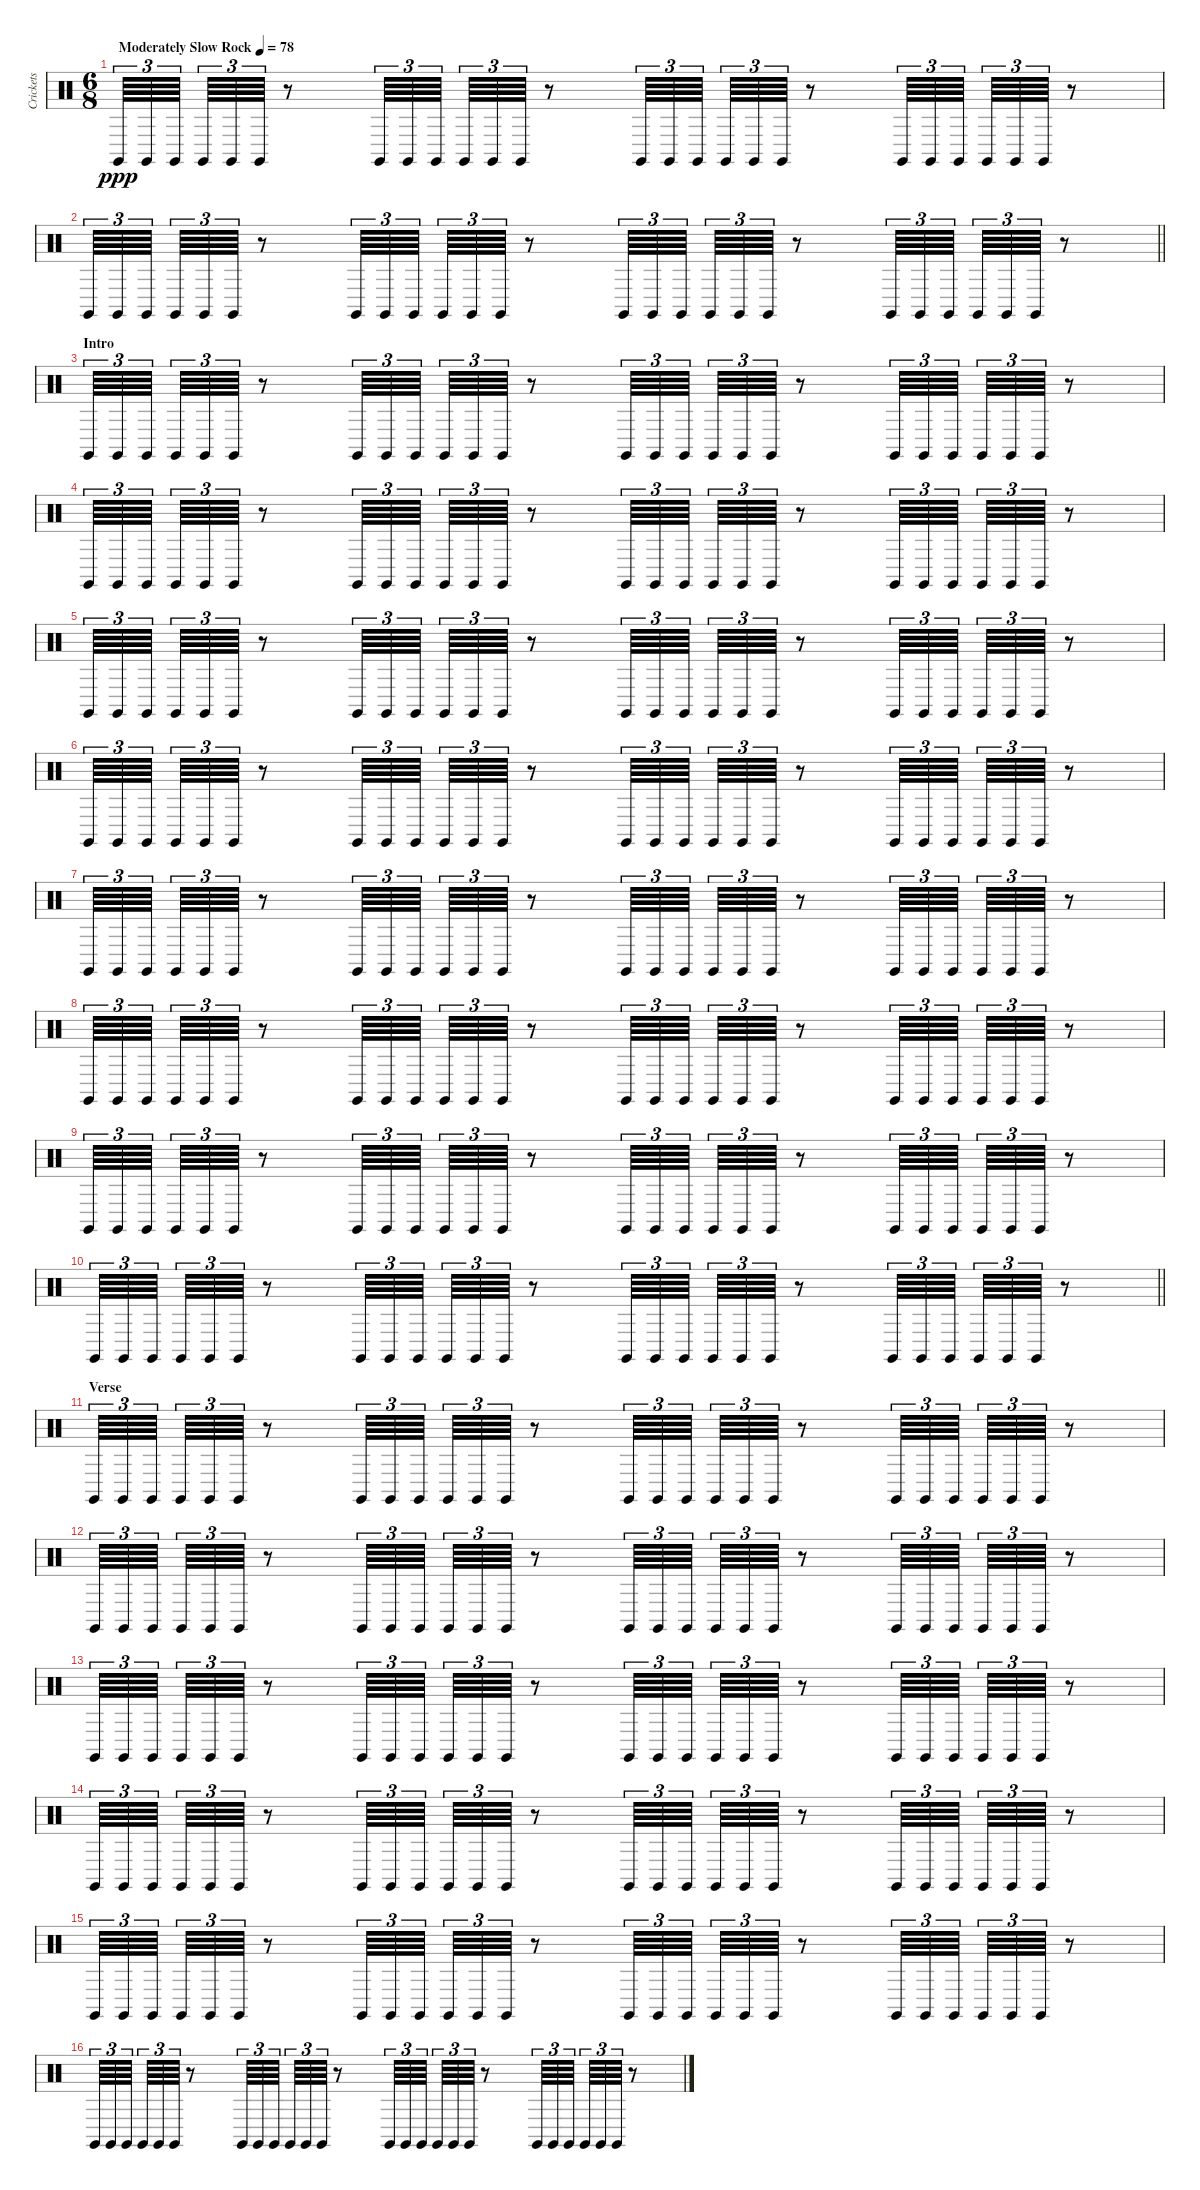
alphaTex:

\track ("Crickets" "Crickets") {instrument percussion}
\staff {score}
\articulation defaults
\ts (6 8)
\tempo (78 "Moderately Slow Rock")
\clef neutral
\ks c "Claves (hit)".64{tu (3 2) dy ppp} "Claves (hit)".64{tu (3 2)} "Claves (hit)".64{tu (3 2) beam splitsecondary} "Claves (hit)".64{tu (3 2)} "Claves (hit)".64{tu (3 2)} "Claves (hit)".64{tu (3 2)}
r.8 "Claves (hit)".64{tu (3 2)} "Claves (hit)".64{tu (3 2)} "Claves (hit)".64{tu (3 2) beam splitsecondary} "Claves (hit)".64{tu (3 2)} "Claves (hit)".64{tu (3 2)} "Claves (hit)".64{tu (3 2)} r.8 "Claves (hit)".64{tu (3 2)} "Claves (hit)".64{tu (3 2)} "Claves (hit)".64{tu (3 2) beam splitsecondary} "Claves (hit)".64{tu (3 2)} "Claves (hit)".64{tu (3 2)} "Claves (hit)".64{tu (3 2)} r.8 "Claves (hit)".64{tu (3 2)} "Claves (hit)".64{tu (3 2)} "Claves (hit)".64{tu (3 2) beam splitsecondary} "Claves (hit)".64{tu (3 2)} "Claves (hit)".64{tu (3 2)} "Claves (hit)".64{tu (3 2)} r.8 |
\barLineRight lightlight "Claves (hit)".64{tu (3 2)} "Claves (hit)".64{tu (3 2)} "Claves (hit)".64{tu (3 2) beam splitsecondary} "Claves (hit)".64{tu (3 2)} "Claves (hit)".64{tu (3 2)} "Claves (hit)".64{tu (3 2)}
r.8 "Claves (hit)".64{tu (3 2)} "Claves (hit)".64{tu (3 2)} "Claves (hit)".64{tu (3 2) beam splitsecondary} "Claves (hit)".64{tu (3 2)} "Claves (hit)".64{tu (3 2)} "Claves (hit)".64{tu (3 2)} r.8 "Claves (hit)".64{tu (3 2)} "Claves (hit)".64{tu (3 2)} "Claves (hit)".64{tu (3 2) beam splitsecondary} "Claves (hit)".64{tu (3 2)} "Claves (hit)".64{tu (3 2)} "Claves (hit)".64{tu (3 2)} r.8 "Claves (hit)".64{tu (3 2)} "Claves (hit)".64{tu (3 2)} "Claves (hit)".64{tu (3 2) beam splitsecondary} "Claves (hit)".64{tu (3 2)} "Claves (hit)".64{tu (3 2)} "Claves (hit)".64{tu (3 2)} r.8 |
\section ("" "Intro")
"Claves (hit)".64{tu (3 2)} "Claves (hit)".64{tu (3 2)} "Claves (hit)".64{tu (3 2) beam splitsecondary} "Claves (hit)".64{tu (3 2)} "Claves (hit)".64{tu (3 2)} "Claves (hit)".64{tu (3 2)} r.8 "Claves (hit)".64{tu (3 2)} "Claves (hit)".64{tu (3 2)} "Claves (hit)".64{tu (3 2) beam splitsecondary} "Claves (hit)".64{tu (3 2)} "Claves (hit)".64{tu (3 2)} "Claves (hit)".64{tu (3 2)} r.8 "Claves (hit)".64{tu (3 2)} "Claves (hit)".64{tu (3 2)} "Claves (hit)".64{tu (3 2) beam splitsecondary} "Claves (hit)".64{tu (3 2)} "Claves (hit)".64{tu (3 2)} "Claves (hit)".64{tu (3 2)} r.8 "Claves (hit)".64{tu (3 2)} "Claves (hit)".64{tu (3 2)} "Claves (hit)".64{tu (3 2) beam splitsecondary} "Claves (hit)".64{tu (3 2)} "Claves (hit)".64{tu (3 2)} "Claves (hit)".64{tu (3 2)} r.8 |
"Claves (hit)".64{tu (3 2)} "Claves (hit)".64{tu (3 2)} "Claves (hit)".64{tu (3 2) beam splitsecondary} "Claves (hit)".64{tu (3 2)} "Claves (hit)".64{tu (3 2)} "Claves (hit)".64{tu (3 2)} r.8 "Claves (hit)".64{tu (3 2)} "Claves (hit)".64{tu (3 2)} "Claves (hit)".64{tu (3 2) beam splitsecondary} "Claves (hit)".64{tu (3 2)} "Claves (hit)".64{tu (3 2)} "Claves (hit)".64{tu (3 2)} r.8 "Claves (hit)".64{tu (3 2)} "Claves (hit)".64{tu (3 2)} "Claves (hit)".64{tu (3 2) beam splitsecondary} "Claves (hit)".64{tu (3 2)} "Claves (hit)".64{tu (3 2)} "Claves (hit)".64{tu (3 2)} r.8 "Claves (hit)".64{tu (3 2)} "Claves (hit)".64{tu (3 2)} "Claves (hit)".64{tu (3 2) beam splitsecondary} "Claves (hit)".64{tu (3 2)} "Claves (hit)".64{tu (3 2)} "Claves (hit)".64{tu (3 2)} r.8 |
"Claves (hit)".64{tu (3 2)} "Claves (hit)".64{tu (3 2)} "Claves (hit)".64{tu (3 2) beam splitsecondary} "Claves (hit)".64{tu (3 2)} "Claves (hit)".64{tu (3 2)} "Claves (hit)".64{tu (3 2)} r.8 "Claves (hit)".64{tu (3 2)} "Claves (hit)".64{tu (3 2)} "Claves (hit)".64{tu (3 2) beam splitsecondary} "Claves (hit)".64{tu (3 2)} "Claves (hit)".64{tu (3 2)} "Claves (hit)".64{tu (3 2)} r.8 "Claves (hit)".64{tu (3 2)} "Claves (hit)".64{tu (3 2)} "Claves (hit)".64{tu (3 2) beam splitsecondary} "Claves (hit)".64{tu (3 2)} "Claves (hit)".64{tu (3 2)} "Claves (hit)".64{tu (3 2)} r.8 "Claves (hit)".64{tu (3 2)} "Claves (hit)".64{tu (3 2)} "Claves (hit)".64{tu (3 2) beam splitsecondary} "Claves (hit)".64{tu (3 2)} "Claves (hit)".64{tu (3 2)} "Claves (hit)".64{tu (3 2)} r.8 |
"Claves (hit)".64{tu (3 2)} "Claves (hit)".64{tu (3 2)} "Claves (hit)".64{tu (3 2) beam splitsecondary} "Claves (hit)".64{tu (3 2)} "Claves (hit)".64{tu (3 2)} "Claves (hit)".64{tu (3 2)} r.8 "Claves (hit)".64{tu (3 2)} "Claves (hit)".64{tu (3 2)} "Claves (hit)".64{tu (3 2) beam splitsecondary} "Claves (hit)".64{tu (3 2)} "Claves (hit)".64{tu (3 2)} "Claves (hit)".64{tu (3 2)} r.8 "Claves (hit)".64{tu (3 2)} "Claves (hit)".64{tu (3 2)} "Claves (hit)".64{tu (3 2) beam splitsecondary} "Claves (hit)".64{tu (3 2)} "Claves (hit)".64{tu (3 2)} "Claves (hit)".64{tu (3 2)} r.8 "Claves (hit)".64{tu (3 2)} "Claves (hit)".64{tu (3 2)} "Claves (hit)".64{tu (3 2) beam splitsecondary} "Claves (hit)".64{tu (3 2)} "Claves (hit)".64{tu (3 2)} "Claves (hit)".64{tu (3 2)} r.8 |
"Claves (hit)".64{tu (3 2)} "Claves (hit)".64{tu (3 2)} "Claves (hit)".64{tu (3 2) beam splitsecondary} "Claves (hit)".64{tu (3 2)} "Claves (hit)".64{tu (3 2)} "Claves (hit)".64{tu (3 2)} r.8 "Claves (hit)".64{tu (3 2)} "Claves (hit)".64{tu (3 2)} "Claves (hit)".64{tu (3 2) beam splitsecondary} "Claves (hit)".64{tu (3 2)} "Claves (hit)".64{tu (3 2)} "Claves (hit)".64{tu (3 2)} r.8 "Claves (hit)".64{tu (3 2)} "Claves (hit)".64{tu (3 2)} "Claves (hit)".64{tu (3 2) beam splitsecondary} "Claves (hit)".64{tu (3 2)} "Claves (hit)".64{tu (3 2)} "Claves (hit)".64{tu (3 2)} r.8 "Claves (hit)".64{tu (3 2)} "Claves (hit)".64{tu (3 2)} "Claves (hit)".64{tu (3 2) beam splitsecondary} "Claves (hit)".64{tu (3 2)} "Claves (hit)".64{tu (3 2)} "Claves (hit)".64{tu (3 2)} r.8 |
"Claves (hit)".64{tu (3 2)} "Claves (hit)".64{tu (3 2)} "Claves (hit)".64{tu (3 2) beam splitsecondary} "Claves (hit)".64{tu (3 2)} "Claves (hit)".64{tu (3 2)} "Claves (hit)".64{tu (3 2)} r.8 "Claves (hit)".64{tu (3 2)} "Claves (hit)".64{tu (3 2)} "Claves (hit)".64{tu (3 2) beam splitsecondary} "Claves (hit)".64{tu (3 2)} "Claves (hit)".64{tu (3 2)} "Claves (hit)".64{tu (3 2)} r.8 "Claves (hit)".64{tu (3 2)} "Claves (hit)".64{tu (3 2)} "Claves (hit)".64{tu (3 2) beam splitsecondary} "Claves (hit)".64{tu (3 2)} "Claves (hit)".64{tu (3 2)} "Claves (hit)".64{tu (3 2)} r.8 "Claves (hit)".64{tu (3 2)} "Claves (hit)".64{tu (3 2)} "Claves (hit)".64{tu (3 2) beam splitsecondary} "Claves (hit)".64{tu (3 2)} "Claves (hit)".64{tu (3 2)} "Claves (hit)".64{tu (3 2)} r.8 |
"Claves (hit)".64{tu (3 2)} "Claves (hit)".64{tu (3 2)} "Claves (hit)".64{tu (3 2) beam splitsecondary} "Claves (hit)".64{tu (3 2)} "Claves (hit)".64{tu (3 2)} "Claves (hit)".64{tu (3 2)} r.8 "Claves (hit)".64{tu (3 2)} "Claves (hit)".64{tu (3 2)} "Claves (hit)".64{tu (3 2) beam splitsecondary} "Claves (hit)".64{tu (3 2)} "Claves (hit)".64{tu (3 2)} "Claves (hit)".64{tu (3 2)} r.8 "Claves (hit)".64{tu (3 2)} "Claves (hit)".64{tu (3 2)} "Claves (hit)".64{tu (3 2) beam splitsecondary} "Claves (hit)".64{tu (3 2)} "Claves (hit)".64{tu (3 2)} "Claves (hit)".64{tu (3 2)} r.8 "Claves (hit)".64{tu (3 2)} "Claves (hit)".64{tu (3 2)} "Claves (hit)".64{tu (3 2) beam splitsecondary} "Claves (hit)".64{tu (3 2)} "Claves (hit)".64{tu (3 2)} "Claves (hit)".64{tu (3 2)} r.8 |
\barLineRight lightlight "Claves (hit)".64{tu (3 2)} "Claves (hit)".64{tu (3 2)} "Claves (hit)".64{tu (3 2) beam splitsecondary} "Claves (hit)".64{tu (3 2)} "Claves (hit)".64{tu (3 2)} "Claves (hit)".64{tu (3 2)}
r.8 "Claves (hit)".64{tu (3 2)} "Claves (hit)".64{tu (3 2)} "Claves (hit)".64{tu (3 2) beam splitsecondary} "Claves (hit)".64{tu (3 2)} "Claves (hit)".64{tu (3 2)} "Claves (hit)".64{tu (3 2)} r.8 "Claves (hit)".64{tu (3 2)} "Claves (hit)".64{tu (3 2)} "Claves (hit)".64{tu (3 2) beam splitsecondary} "Claves (hit)".64{tu (3 2)} "Claves (hit)".64{tu (3 2)} "Claves (hit)".64{tu (3 2)} r.8 "Claves (hit)".64{tu (3 2)} "Claves (hit)".64{tu (3 2)} "Claves (hit)".64{tu (3 2) beam splitsecondary} "Claves (hit)".64{tu (3 2)} "Claves (hit)".64{tu (3 2)} "Claves (hit)".64{tu (3 2)} r.8 |
\section ("" "Verse")
"Claves (hit)".64{tu (3 2)} "Claves (hit)".64{tu (3 2)} "Claves (hit)".64{tu (3 2) beam splitsecondary} "Claves (hit)".64{tu (3 2)} "Claves (hit)".64{tu (3 2)} "Claves (hit)".64{tu (3 2)} r.8 "Claves (hit)".64{tu (3 2)} "Claves (hit)".64{tu (3 2)} "Claves (hit)".64{tu (3 2) beam splitsecondary} "Claves (hit)".64{tu (3 2)} "Claves (hit)".64{tu (3 2)} "Claves (hit)".64{tu (3 2)} r.8 "Claves (hit)".64{tu (3 2)} "Claves (hit)".64{tu (3 2)} "Claves (hit)".64{tu (3 2) beam splitsecondary} "Claves (hit)".64{tu (3 2)} "Claves (hit)".64{tu (3 2)} "Claves (hit)".64{tu (3 2)} r.8 "Claves (hit)".64{tu (3 2)} "Claves (hit)".64{tu (3 2)} "Claves (hit)".64{tu (3 2) beam splitsecondary} "Claves (hit)".64{tu (3 2)} "Claves (hit)".64{tu (3 2)} "Claves (hit)".64{tu (3 2)} r.8 |
"Claves (hit)".64{tu (3 2)} "Claves (hit)".64{tu (3 2)} "Claves (hit)".64{tu (3 2) beam splitsecondary} "Claves (hit)".64{tu (3 2)} "Claves (hit)".64{tu (3 2)} "Claves (hit)".64{tu (3 2)} r.8 "Claves (hit)".64{tu (3 2)} "Claves (hit)".64{tu (3 2)} "Claves (hit)".64{tu (3 2) beam splitsecondary} "Claves (hit)".64{tu (3 2)} "Claves (hit)".64{tu (3 2)} "Claves (hit)".64{tu (3 2)} r.8 "Claves (hit)".64{tu (3 2)} "Claves (hit)".64{tu (3 2)} "Claves (hit)".64{tu (3 2) beam splitsecondary} "Claves (hit)".64{tu (3 2)} "Claves (hit)".64{tu (3 2)} "Claves (hit)".64{tu (3 2)} r.8 "Claves (hit)".64{tu (3 2)} "Claves (hit)".64{tu (3 2)} "Claves (hit)".64{tu (3 2) beam splitsecondary} "Claves (hit)".64{tu (3 2)} "Claves (hit)".64{tu (3 2)} "Claves (hit)".64{tu (3 2)} r.8 |
"Claves (hit)".64{tu (3 2)} "Claves (hit)".64{tu (3 2)} "Claves (hit)".64{tu (3 2) beam splitsecondary} "Claves (hit)".64{tu (3 2)} "Claves (hit)".64{tu (3 2)} "Claves (hit)".64{tu (3 2)} r.8 "Claves (hit)".64{tu (3 2)} "Claves (hit)".64{tu (3 2)} "Claves (hit)".64{tu (3 2) beam splitsecondary} "Claves (hit)".64{tu (3 2)} "Claves (hit)".64{tu (3 2)} "Claves (hit)".64{tu (3 2)} r.8 "Claves (hit)".64{tu (3 2)} "Claves (hit)".64{tu (3 2)} "Claves (hit)".64{tu (3 2) beam splitsecondary} "Claves (hit)".64{tu (3 2)} "Claves (hit)".64{tu (3 2)} "Claves (hit)".64{tu (3 2)} r.8 "Claves (hit)".64{tu (3 2)} "Claves (hit)".64{tu (3 2)} "Claves (hit)".64{tu (3 2) beam splitsecondary} "Claves (hit)".64{tu (3 2)} "Claves (hit)".64{tu (3 2)} "Claves (hit)".64{tu (3 2)} r.8 |
"Claves (hit)".64{tu (3 2)} "Claves (hit)".64{tu (3 2)} "Claves (hit)".64{tu (3 2) beam splitsecondary} "Claves (hit)".64{tu (3 2)} "Claves (hit)".64{tu (3 2)} "Claves (hit)".64{tu (3 2)} r.8 "Claves (hit)".64{tu (3 2)} "Claves (hit)".64{tu (3 2)} "Claves (hit)".64{tu (3 2) beam splitsecondary} "Claves (hit)".64{tu (3 2)} "Claves (hit)".64{tu (3 2)} "Claves (hit)".64{tu (3 2)} r.8 "Claves (hit)".64{tu (3 2)} "Claves (hit)".64{tu (3 2)} "Claves (hit)".64{tu (3 2) beam splitsecondary} "Claves (hit)".64{tu (3 2)} "Claves (hit)".64{tu (3 2)} "Claves (hit)".64{tu (3 2)} r.8 "Claves (hit)".64{tu (3 2)} "Claves (hit)".64{tu (3 2)} "Claves (hit)".64{tu (3 2) beam splitsecondary} "Claves (hit)".64{tu (3 2)} "Claves (hit)".64{tu (3 2)} "Claves (hit)".64{tu (3 2)} r.8 |
"Claves (hit)".64{tu (3 2)} "Claves (hit)".64{tu (3 2)} "Claves (hit)".64{tu (3 2) beam splitsecondary} "Claves (hit)".64{tu (3 2)} "Claves (hit)".64{tu (3 2)} "Claves (hit)".64{tu (3 2)} r.8 "Claves (hit)".64{tu (3 2)} "Claves (hit)".64{tu (3 2)} "Claves (hit)".64{tu (3 2) beam splitsecondary} "Claves (hit)".64{tu (3 2)} "Claves (hit)".64{tu (3 2)} "Claves (hit)".64{tu (3 2)} r.8 "Claves (hit)".64{tu (3 2)} "Claves (hit)".64{tu (3 2)} "Claves (hit)".64{tu (3 2) beam splitsecondary} "Claves (hit)".64{tu (3 2)} "Claves (hit)".64{tu (3 2)} "Claves (hit)".64{tu (3 2)} r.8 "Claves (hit)".64{tu (3 2)} "Claves (hit)".64{tu (3 2)} "Claves (hit)".64{tu (3 2) beam splitsecondary} "Claves (hit)".64{tu (3 2)} "Claves (hit)".64{tu (3 2)} "Claves (hit)".64{tu (3 2)} r.8 |
"Claves (hit)".64{tu (3 2)} "Claves (hit)".64{tu (3 2)} "Claves (hit)".64{tu (3 2) beam splitsecondary} "Claves (hit)".64{tu (3 2)} "Claves (hit)".64{tu (3 2)} "Claves (hit)".64{tu (3 2)} r.8 "Claves (hit)".64{tu (3 2)} "Claves (hit)".64{tu (3 2)} "Claves (hit)".64{tu (3 2) beam splitsecondary} "Claves (hit)".64{tu (3 2)} "Claves (hit)".64{tu (3 2)} "Claves (hit)".64{tu (3 2)} r.8 "Claves (hit)".64{tu (3 2)} "Claves (hit)".64{tu (3 2)} "Claves (hit)".64{tu (3 2) beam splitsecondary} "Claves (hit)".64{tu (3 2)} "Claves (hit)".64{tu (3 2)} "Claves (hit)".64{tu (3 2)} r.8 "Claves (hit)".64{tu (3 2)} "Claves (hit)".64{tu (3 2)} "Claves (hit)".64{tu (3 2) beam splitsecondary} "Claves (hit)".64{tu (3 2)} "Claves (hit)".64{tu (3 2)} "Claves (hit)".64{tu (3 2)} r.8
